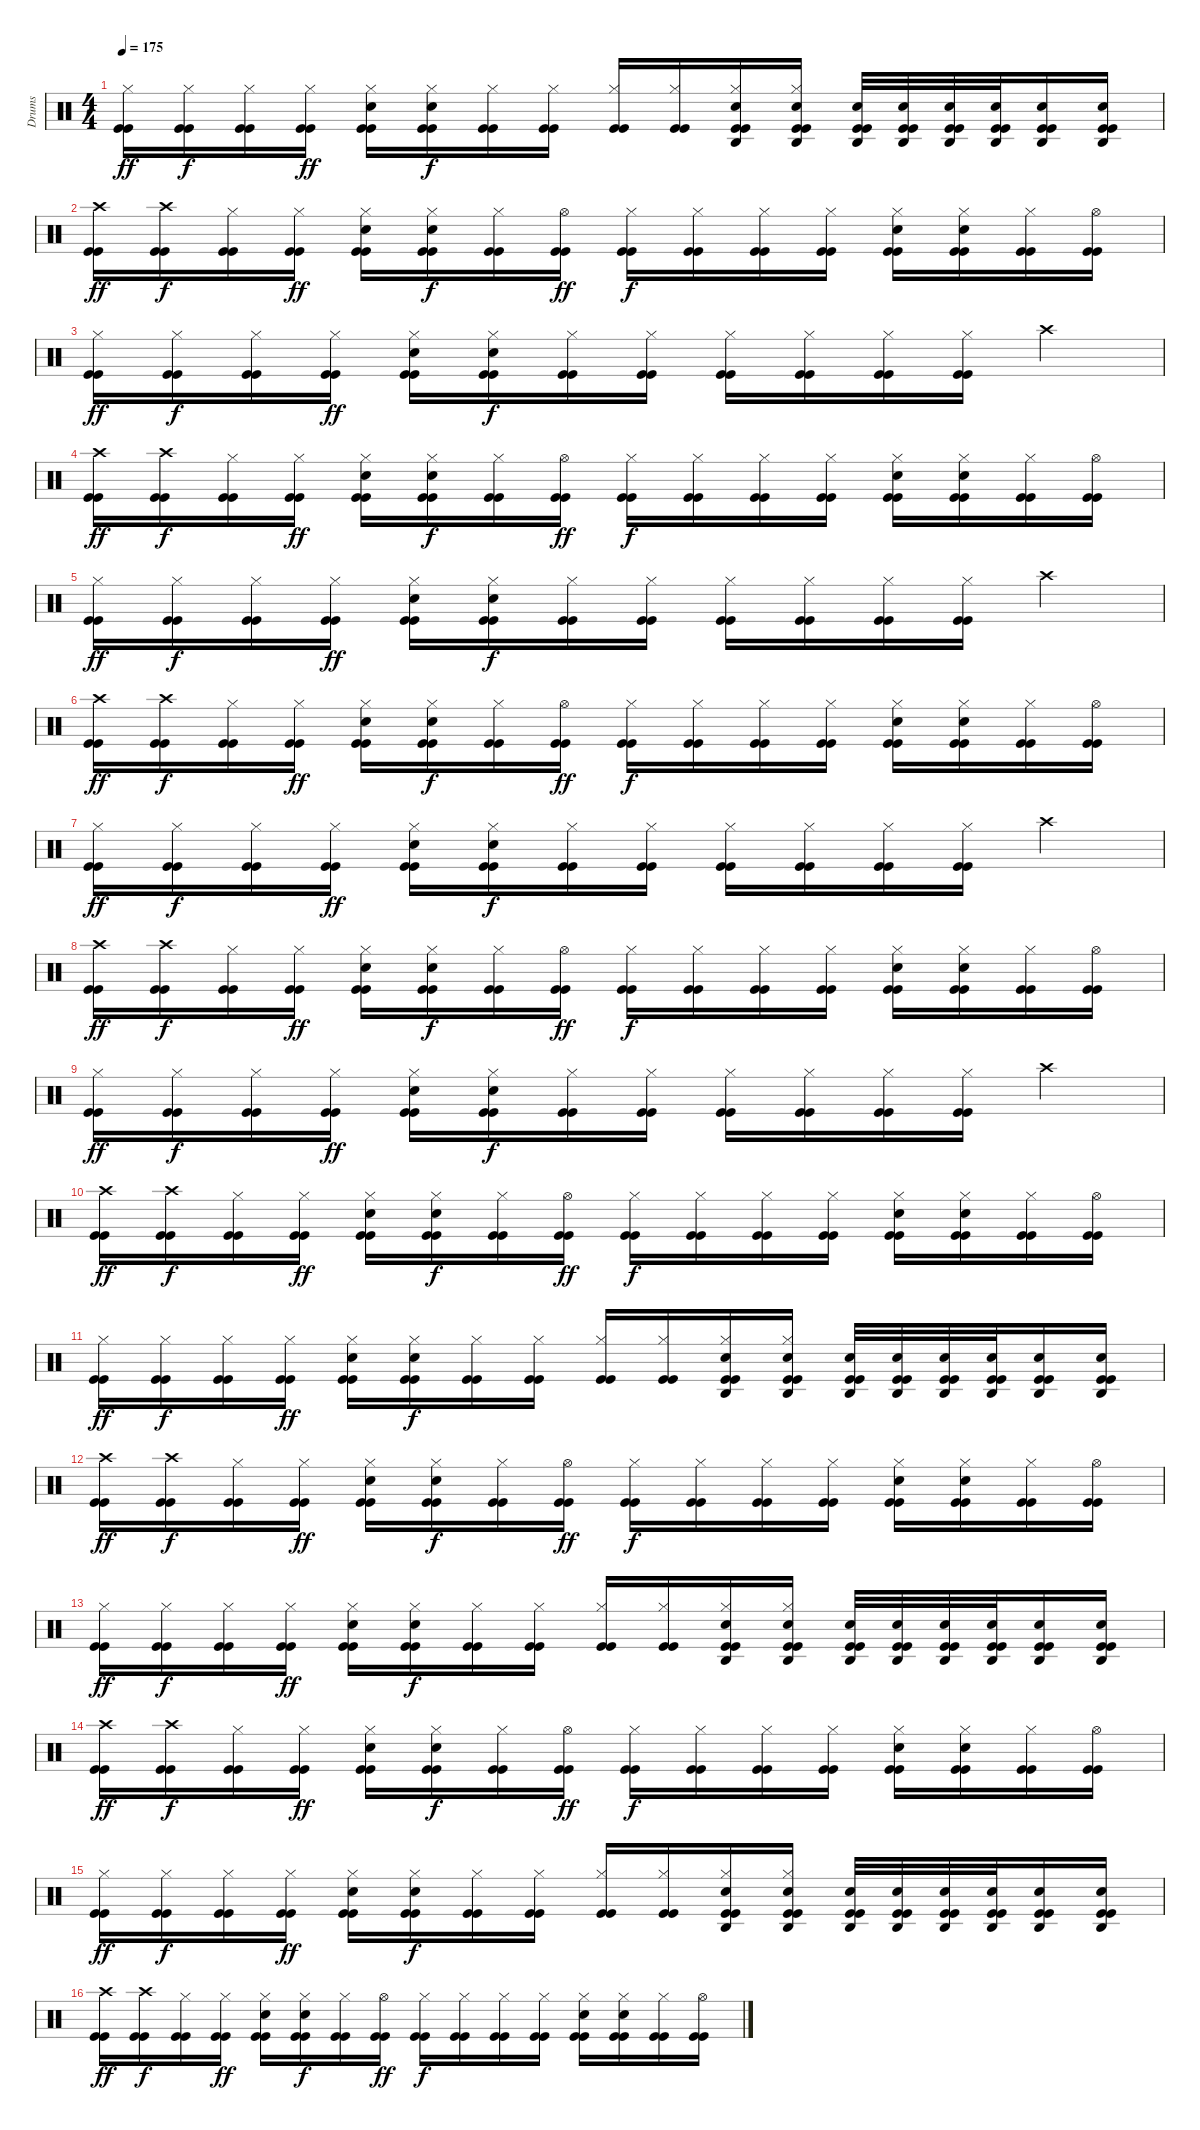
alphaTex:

\track ("Drums" "Drums") {instrument percussion}
\staff {score}
\articulation defaults
\ts (4 4)
\tempo 175
\clef neutral
\ks c
("Hi-Hat (closed)" "Kick (hit)" "Kick (hit)").16{dy ff} ("Hi-Hat (closed)" "Kick (hit)" "Kick (hit)").16{dy f} ("Hi-Hat (closed)" "Kick (hit)" "Kick (hit)").16 ("Hi-Hat (closed)" "Kick (hit)" "Kick (hit)").16{dy ff} ("Electric Snare (hit)" "Hi-Hat (closed)" "Kick (hit)" "Kick (hit)").16 ("Electric Snare (hit)" "Hi-Hat (closed)" "Kick (hit)" "Kick (hit)").16{dy f} ("Hi-Hat (closed)" "Kick (hit)" "Kick (hit)").16 ("Hi-Hat (closed)" "Kick (hit)" "Kick (hit)").16 ("Hi-Hat (closed)" "Kick (hit)" "Kick (hit)").16 ("Hi-Hat (closed)" "Kick (hit)" "Kick (hit)").16 ("Agogo high (hit)" "Electric Snare (hit)" "Hi-Hat (closed)" "Kick (hit)" "Kick (hit)").16 ("Agogo high (hit)" "Electric Snare (hit)" "Hi-Hat (closed)" "Kick (hit)" "Kick (hit)").16 ("Agogo high (hit)" "Electric Snare (hit)" "Kick (hit)" "Kick (hit)").32 ("Agogo high (hit)" "Electric Snare (hit)" "Kick (hit)" "Kick (hit)").32 ("Agogo high (hit)" "Electric Snare (hit)" "Kick (hit)" "Kick (hit)").32 ("Agogo high (hit)" "Electric Snare (hit)" "Kick (hit)" "Kick (hit)").32 ("Agogo high (hit)" "Electric Snare (hit)" "Kick (hit)" "Kick (hit)").16 ("Agogo high (hit)" "Electric Snare (hit)" "Kick (hit)" "Kick (hit)").16 |
("Crash high (hit)" "Kick (hit)" "Kick (hit)").16{dy ff} ("Crash high (hit)" "Kick (hit)" "Kick (hit)").16{dy f} ("Hi-Hat (closed)" "Kick (hit)" "Kick (hit)").16 ("Hi-Hat (closed)" "Kick (hit)" "Kick (hit)").16{dy ff} ("Electric Snare (hit)" "Hi-Hat (closed)" "Kick (hit)" "Kick (hit)").16 ("Electric Snare (hit)" "Hi-Hat (closed)" "Kick (hit)" "Kick (hit)").16{dy f} ("Hi-Hat (closed)" "Kick (hit)" "Kick (hit)").16 ("Hi-Hat (open)" "Kick (hit)" "Kick (hit)").16{dy ff} ("Hi-Hat (closed)" "Kick (hit)" "Kick (hit)").16{dy f} ("Hi-Hat (closed)" "Kick (hit)" "Kick (hit)").16 ("Hi-Hat (closed)" "Kick (hit)" "Kick (hit)").16 ("Hi-Hat (closed)" "Kick (hit)" "Kick (hit)").16 ("Electric Snare (hit)" "Hi-Hat (closed)" "Kick (hit)" "Kick (hit)").16 ("Electric Snare (hit)" "Hi-Hat (closed)" "Kick (hit)" "Kick (hit)").16 ("Hi-Hat (closed)" "Kick (hit)" "Kick (hit)").16 ("Hi-Hat (open)" "Kick (hit)" "Kick (hit)").16 |
("Hi-Hat (closed)" "Kick (hit)" "Kick (hit)").16{dy ff} ("Hi-Hat (closed)" "Kick (hit)" "Kick (hit)").16{dy f} ("Hi-Hat (closed)" "Kick (hit)" "Kick (hit)").16 ("Hi-Hat (closed)" "Kick (hit)" "Kick (hit)").16{dy ff} ("Electric Snare (hit)" "Hi-Hat (closed)" "Kick (hit)" "Kick (hit)").16 ("Electric Snare (hit)" "Hi-Hat (closed)" "Kick (hit)" "Kick (hit)").16{dy f} ("Hi-Hat (closed)" "Kick (hit)" "Kick (hit)").16 ("Hi-Hat (closed)" "Kick (hit)" "Kick (hit)").16 ("Hi-Hat (closed)" "Kick (hit)" "Kick (hit)").16 ("Hi-Hat (closed)" "Kick (hit)" "Kick (hit)").16 ("Hi-Hat (closed)" "Kick (hit)" "Kick (hit)").16 ("Hi-Hat (closed)" "Kick (hit)" "Kick (hit)").16 "Crash high (hit)".4 |
("Crash high (hit)" "Kick (hit)" "Kick (hit)").16{dy ff} ("Crash high (hit)" "Kick (hit)" "Kick (hit)").16{dy f} ("Hi-Hat (closed)" "Kick (hit)" "Kick (hit)").16 ("Hi-Hat (closed)" "Kick (hit)" "Kick (hit)").16{dy ff} ("Electric Snare (hit)" "Hi-Hat (closed)" "Kick (hit)" "Kick (hit)").16 ("Electric Snare (hit)" "Hi-Hat (closed)" "Kick (hit)" "Kick (hit)").16{dy f} ("Hi-Hat (closed)" "Kick (hit)" "Kick (hit)").16 ("Hi-Hat (open)" "Kick (hit)" "Kick (hit)").16{dy ff} ("Hi-Hat (closed)" "Kick (hit)" "Kick (hit)").16{dy f} ("Hi-Hat (closed)" "Kick (hit)" "Kick (hit)").16 ("Hi-Hat (closed)" "Kick (hit)" "Kick (hit)").16 ("Hi-Hat (closed)" "Kick (hit)" "Kick (hit)").16 ("Electric Snare (hit)" "Hi-Hat (closed)" "Kick (hit)" "Kick (hit)").16 ("Electric Snare (hit)" "Hi-Hat (closed)" "Kick (hit)" "Kick (hit)").16 ("Hi-Hat (closed)" "Kick (hit)" "Kick (hit)").16 ("Hi-Hat (open)" "Kick (hit)" "Kick (hit)").16 |
("Hi-Hat (closed)" "Kick (hit)" "Kick (hit)").16{dy ff} ("Hi-Hat (closed)" "Kick (hit)" "Kick (hit)").16{dy f} ("Hi-Hat (closed)" "Kick (hit)" "Kick (hit)").16 ("Hi-Hat (closed)" "Kick (hit)" "Kick (hit)").16{dy ff} ("Electric Snare (hit)" "Hi-Hat (closed)" "Kick (hit)" "Kick (hit)").16 ("Electric Snare (hit)" "Hi-Hat (closed)" "Kick (hit)" "Kick (hit)").16{dy f} ("Hi-Hat (closed)" "Kick (hit)" "Kick (hit)").16 ("Hi-Hat (closed)" "Kick (hit)" "Kick (hit)").16 ("Hi-Hat (closed)" "Kick (hit)" "Kick (hit)").16 ("Hi-Hat (closed)" "Kick (hit)" "Kick (hit)").16 ("Hi-Hat (closed)" "Kick (hit)" "Kick (hit)").16 ("Hi-Hat (closed)" "Kick (hit)" "Kick (hit)").16 "Crash high (hit)".4 |
("Crash high (hit)" "Kick (hit)" "Kick (hit)").16{dy ff} ("Crash high (hit)" "Kick (hit)" "Kick (hit)").16{dy f} ("Hi-Hat (closed)" "Kick (hit)" "Kick (hit)").16 ("Hi-Hat (closed)" "Kick (hit)" "Kick (hit)").16{dy ff} ("Electric Snare (hit)" "Hi-Hat (closed)" "Kick (hit)" "Kick (hit)").16 ("Electric Snare (hit)" "Hi-Hat (closed)" "Kick (hit)" "Kick (hit)").16{dy f} ("Hi-Hat (closed)" "Kick (hit)" "Kick (hit)").16 ("Hi-Hat (open)" "Kick (hit)" "Kick (hit)").16{dy ff} ("Hi-Hat (closed)" "Kick (hit)" "Kick (hit)").16{dy f} ("Hi-Hat (closed)" "Kick (hit)" "Kick (hit)").16 ("Hi-Hat (closed)" "Kick (hit)" "Kick (hit)").16 ("Hi-Hat (closed)" "Kick (hit)" "Kick (hit)").16 ("Electric Snare (hit)" "Hi-Hat (closed)" "Kick (hit)" "Kick (hit)").16 ("Electric Snare (hit)" "Hi-Hat (closed)" "Kick (hit)" "Kick (hit)").16 ("Hi-Hat (closed)" "Kick (hit)" "Kick (hit)").16 ("Hi-Hat (open)" "Kick (hit)" "Kick (hit)").16 |
("Hi-Hat (closed)" "Kick (hit)" "Kick (hit)").16{dy ff} ("Hi-Hat (closed)" "Kick (hit)" "Kick (hit)").16{dy f} ("Hi-Hat (closed)" "Kick (hit)" "Kick (hit)").16 ("Hi-Hat (closed)" "Kick (hit)" "Kick (hit)").16{dy ff} ("Electric Snare (hit)" "Hi-Hat (closed)" "Kick (hit)" "Kick (hit)").16 ("Electric Snare (hit)" "Hi-Hat (closed)" "Kick (hit)" "Kick (hit)").16{dy f} ("Hi-Hat (closed)" "Kick (hit)" "Kick (hit)").16 ("Hi-Hat (closed)" "Kick (hit)" "Kick (hit)").16 ("Hi-Hat (closed)" "Kick (hit)" "Kick (hit)").16 ("Hi-Hat (closed)" "Kick (hit)" "Kick (hit)").16 ("Hi-Hat (closed)" "Kick (hit)" "Kick (hit)").16 ("Hi-Hat (closed)" "Kick (hit)" "Kick (hit)").16 "Crash high (hit)".4 |
("Crash high (hit)" "Kick (hit)" "Kick (hit)").16{dy ff} ("Crash high (hit)" "Kick (hit)" "Kick (hit)").16{dy f} ("Hi-Hat (closed)" "Kick (hit)" "Kick (hit)").16 ("Hi-Hat (closed)" "Kick (hit)" "Kick (hit)").16{dy ff} ("Electric Snare (hit)" "Hi-Hat (closed)" "Kick (hit)" "Kick (hit)").16 ("Electric Snare (hit)" "Hi-Hat (closed)" "Kick (hit)" "Kick (hit)").16{dy f} ("Hi-Hat (closed)" "Kick (hit)" "Kick (hit)").16 ("Hi-Hat (open)" "Kick (hit)" "Kick (hit)").16{dy ff} ("Hi-Hat (closed)" "Kick (hit)" "Kick (hit)").16{dy f} ("Hi-Hat (closed)" "Kick (hit)" "Kick (hit)").16 ("Hi-Hat (closed)" "Kick (hit)" "Kick (hit)").16 ("Hi-Hat (closed)" "Kick (hit)" "Kick (hit)").16 ("Electric Snare (hit)" "Hi-Hat (closed)" "Kick (hit)" "Kick (hit)").16 ("Electric Snare (hit)" "Hi-Hat (closed)" "Kick (hit)" "Kick (hit)").16 ("Hi-Hat (closed)" "Kick (hit)" "Kick (hit)").16 ("Hi-Hat (open)" "Kick (hit)" "Kick (hit)").16 |
("Hi-Hat (closed)" "Kick (hit)" "Kick (hit)").16{dy ff} ("Hi-Hat (closed)" "Kick (hit)" "Kick (hit)").16{dy f} ("Hi-Hat (closed)" "Kick (hit)" "Kick (hit)").16 ("Hi-Hat (closed)" "Kick (hit)" "Kick (hit)").16{dy ff} ("Electric Snare (hit)" "Hi-Hat (closed)" "Kick (hit)" "Kick (hit)").16 ("Electric Snare (hit)" "Hi-Hat (closed)" "Kick (hit)" "Kick (hit)").16{dy f} ("Hi-Hat (closed)" "Kick (hit)" "Kick (hit)").16 ("Hi-Hat (closed)" "Kick (hit)" "Kick (hit)").16 ("Hi-Hat (closed)" "Kick (hit)" "Kick (hit)").16 ("Hi-Hat (closed)" "Kick (hit)" "Kick (hit)").16 ("Hi-Hat (closed)" "Kick (hit)" "Kick (hit)").16 ("Hi-Hat (closed)" "Kick (hit)" "Kick (hit)").16 "Crash high (hit)".4 |
("Crash high (hit)" "Kick (hit)" "Kick (hit)").16{dy ff} ("Crash high (hit)" "Kick (hit)" "Kick (hit)").16{dy f} ("Hi-Hat (closed)" "Kick (hit)" "Kick (hit)").16 ("Hi-Hat (closed)" "Kick (hit)" "Kick (hit)").16{dy ff} ("Electric Snare (hit)" "Hi-Hat (closed)" "Kick (hit)" "Kick (hit)").16 ("Electric Snare (hit)" "Hi-Hat (closed)" "Kick (hit)" "Kick (hit)").16{dy f} ("Hi-Hat (closed)" "Kick (hit)" "Kick (hit)").16 ("Hi-Hat (open)" "Kick (hit)" "Kick (hit)").16{dy ff} ("Hi-Hat (closed)" "Kick (hit)" "Kick (hit)").16{dy f} ("Hi-Hat (closed)" "Kick (hit)" "Kick (hit)").16 ("Hi-Hat (closed)" "Kick (hit)" "Kick (hit)").16 ("Hi-Hat (closed)" "Kick (hit)" "Kick (hit)").16 ("Electric Snare (hit)" "Hi-Hat (closed)" "Kick (hit)" "Kick (hit)").16 ("Electric Snare (hit)" "Hi-Hat (closed)" "Kick (hit)" "Kick (hit)").16 ("Hi-Hat (closed)" "Kick (hit)" "Kick (hit)").16 ("Hi-Hat (open)" "Kick (hit)" "Kick (hit)").16 |
("Hi-Hat (closed)" "Kick (hit)" "Kick (hit)").16{dy ff} ("Hi-Hat (closed)" "Kick (hit)" "Kick (hit)").16{dy f} ("Hi-Hat (closed)" "Kick (hit)" "Kick (hit)").16 ("Hi-Hat (closed)" "Kick (hit)" "Kick (hit)").16{dy ff} ("Electric Snare (hit)" "Hi-Hat (closed)" "Kick (hit)" "Kick (hit)").16 ("Electric Snare (hit)" "Hi-Hat (closed)" "Kick (hit)" "Kick (hit)").16{dy f} ("Hi-Hat (closed)" "Kick (hit)" "Kick (hit)").16 ("Hi-Hat (closed)" "Kick (hit)" "Kick (hit)").16 ("Hi-Hat (closed)" "Kick (hit)" "Kick (hit)").16 ("Hi-Hat (closed)" "Kick (hit)" "Kick (hit)").16 ("Agogo high (hit)" "Electric Snare (hit)" "Hi-Hat (closed)" "Kick (hit)" "Kick (hit)").16 ("Agogo high (hit)" "Electric Snare (hit)" "Hi-Hat (closed)" "Kick (hit)" "Kick (hit)").16 ("Agogo high (hit)" "Electric Snare (hit)" "Kick (hit)" "Kick (hit)").32 ("Agogo high (hit)" "Electric Snare (hit)" "Kick (hit)" "Kick (hit)").32 ("Agogo high (hit)" "Electric Snare (hit)" "Kick (hit)" "Kick (hit)").32 ("Agogo high (hit)" "Electric Snare (hit)" "Kick (hit)" "Kick (hit)").32 ("Agogo high (hit)" "Electric Snare (hit)" "Kick (hit)" "Kick (hit)").16 ("Agogo high (hit)" "Electric Snare (hit)" "Kick (hit)" "Kick (hit)").16 |
("Crash high (hit)" "Kick (hit)" "Kick (hit)").16{dy ff} ("Crash high (hit)" "Kick (hit)" "Kick (hit)").16{dy f} ("Hi-Hat (closed)" "Kick (hit)" "Kick (hit)").16 ("Hi-Hat (closed)" "Kick (hit)" "Kick (hit)").16{dy ff} ("Electric Snare (hit)" "Hi-Hat (closed)" "Kick (hit)" "Kick (hit)").16 ("Electric Snare (hit)" "Hi-Hat (closed)" "Kick (hit)" "Kick (hit)").16{dy f} ("Hi-Hat (closed)" "Kick (hit)" "Kick (hit)").16 ("Hi-Hat (open)" "Kick (hit)" "Kick (hit)").16{dy ff} ("Hi-Hat (closed)" "Kick (hit)" "Kick (hit)").16{dy f} ("Hi-Hat (closed)" "Kick (hit)" "Kick (hit)").16 ("Hi-Hat (closed)" "Kick (hit)" "Kick (hit)").16 ("Hi-Hat (closed)" "Kick (hit)" "Kick (hit)").16 ("Electric Snare (hit)" "Hi-Hat (closed)" "Kick (hit)" "Kick (hit)").16 ("Electric Snare (hit)" "Hi-Hat (closed)" "Kick (hit)" "Kick (hit)").16 ("Hi-Hat (closed)" "Kick (hit)" "Kick (hit)").16 ("Hi-Hat (open)" "Kick (hit)" "Kick (hit)").16 |
("Hi-Hat (closed)" "Kick (hit)" "Kick (hit)").16{dy ff} ("Hi-Hat (closed)" "Kick (hit)" "Kick (hit)").16{dy f} ("Hi-Hat (closed)" "Kick (hit)" "Kick (hit)").16 ("Hi-Hat (closed)" "Kick (hit)" "Kick (hit)").16{dy ff} ("Electric Snare (hit)" "Hi-Hat (closed)" "Kick (hit)" "Kick (hit)").16 ("Electric Snare (hit)" "Hi-Hat (closed)" "Kick (hit)" "Kick (hit)").16{dy f} ("Hi-Hat (closed)" "Kick (hit)" "Kick (hit)").16 ("Hi-Hat (closed)" "Kick (hit)" "Kick (hit)").16 ("Hi-Hat (closed)" "Kick (hit)" "Kick (hit)").16 ("Hi-Hat (closed)" "Kick (hit)" "Kick (hit)").16 ("Agogo high (hit)" "Electric Snare (hit)" "Hi-Hat (closed)" "Kick (hit)" "Kick (hit)").16 ("Agogo high (hit)" "Electric Snare (hit)" "Hi-Hat (closed)" "Kick (hit)" "Kick (hit)").16 ("Agogo high (hit)" "Electric Snare (hit)" "Kick (hit)" "Kick (hit)").32 ("Agogo high (hit)" "Electric Snare (hit)" "Kick (hit)" "Kick (hit)").32 ("Agogo high (hit)" "Electric Snare (hit)" "Kick (hit)" "Kick (hit)").32 ("Agogo high (hit)" "Electric Snare (hit)" "Kick (hit)" "Kick (hit)").32 ("Agogo high (hit)" "Electric Snare (hit)" "Kick (hit)" "Kick (hit)").16 ("Agogo high (hit)" "Electric Snare (hit)" "Kick (hit)" "Kick (hit)").16 |
("Crash high (hit)" "Kick (hit)" "Kick (hit)").16{dy ff} ("Crash high (hit)" "Kick (hit)" "Kick (hit)").16{dy f} ("Hi-Hat (closed)" "Kick (hit)" "Kick (hit)").16 ("Hi-Hat (closed)" "Kick (hit)" "Kick (hit)").16{dy ff} ("Electric Snare (hit)" "Hi-Hat (closed)" "Kick (hit)" "Kick (hit)").16 ("Electric Snare (hit)" "Hi-Hat (closed)" "Kick (hit)" "Kick (hit)").16{dy f} ("Hi-Hat (closed)" "Kick (hit)" "Kick (hit)").16 ("Hi-Hat (open)" "Kick (hit)" "Kick (hit)").16{dy ff} ("Hi-Hat (closed)" "Kick (hit)" "Kick (hit)").16{dy f} ("Hi-Hat (closed)" "Kick (hit)" "Kick (hit)").16 ("Hi-Hat (closed)" "Kick (hit)" "Kick (hit)").16 ("Hi-Hat (closed)" "Kick (hit)" "Kick (hit)").16 ("Electric Snare (hit)" "Hi-Hat (closed)" "Kick (hit)" "Kick (hit)").16 ("Electric Snare (hit)" "Hi-Hat (closed)" "Kick (hit)" "Kick (hit)").16 ("Hi-Hat (closed)" "Kick (hit)" "Kick (hit)").16 ("Hi-Hat (open)" "Kick (hit)" "Kick (hit)").16 |
("Hi-Hat (closed)" "Kick (hit)" "Kick (hit)").16{dy ff} ("Hi-Hat (closed)" "Kick (hit)" "Kick (hit)").16{dy f} ("Hi-Hat (closed)" "Kick (hit)" "Kick (hit)").16 ("Hi-Hat (closed)" "Kick (hit)" "Kick (hit)").16{dy ff} ("Electric Snare (hit)" "Hi-Hat (closed)" "Kick (hit)" "Kick (hit)").16 ("Electric Snare (hit)" "Hi-Hat (closed)" "Kick (hit)" "Kick (hit)").16{dy f} ("Hi-Hat (closed)" "Kick (hit)" "Kick (hit)").16 ("Hi-Hat (closed)" "Kick (hit)" "Kick (hit)").16 ("Hi-Hat (closed)" "Kick (hit)" "Kick (hit)").16 ("Hi-Hat (closed)" "Kick (hit)" "Kick (hit)").16 ("Agogo high (hit)" "Electric Snare (hit)" "Hi-Hat (closed)" "Kick (hit)" "Kick (hit)").16 ("Agogo high (hit)" "Electric Snare (hit)" "Hi-Hat (closed)" "Kick (hit)" "Kick (hit)").16 ("Agogo high (hit)" "Electric Snare (hit)" "Kick (hit)" "Kick (hit)").32 ("Agogo high (hit)" "Electric Snare (hit)" "Kick (hit)" "Kick (hit)").32 ("Agogo high (hit)" "Electric Snare (hit)" "Kick (hit)" "Kick (hit)").32 ("Agogo high (hit)" "Electric Snare (hit)" "Kick (hit)" "Kick (hit)").32 ("Agogo high (hit)" "Electric Snare (hit)" "Kick (hit)" "Kick (hit)").16 ("Agogo high (hit)" "Electric Snare (hit)" "Kick (hit)" "Kick (hit)").16 |
("Crash high (hit)" "Kick (hit)" "Kick (hit)").16{dy ff} ("Crash high (hit)" "Kick (hit)" "Kick (hit)").16{dy f} ("Hi-Hat (closed)" "Kick (hit)" "Kick (hit)").16 ("Hi-Hat (closed)" "Kick (hit)" "Kick (hit)").16{dy ff} ("Electric Snare (hit)" "Hi-Hat (closed)" "Kick (hit)" "Kick (hit)").16 ("Electric Snare (hit)" "Hi-Hat (closed)" "Kick (hit)" "Kick (hit)").16{dy f} ("Hi-Hat (closed)" "Kick (hit)" "Kick (hit)").16 ("Hi-Hat (open)" "Kick (hit)" "Kick (hit)").16{dy ff} ("Hi-Hat (closed)" "Kick (hit)" "Kick (hit)").16{dy f} ("Hi-Hat (closed)" "Kick (hit)" "Kick (hit)").16 ("Hi-Hat (closed)" "Kick (hit)" "Kick (hit)").16 ("Hi-Hat (closed)" "Kick (hit)" "Kick (hit)").16 ("Electric Snare (hit)" "Hi-Hat (closed)" "Kick (hit)" "Kick (hit)").16 ("Electric Snare (hit)" "Hi-Hat (closed)" "Kick (hit)" "Kick (hit)").16 ("Hi-Hat (closed)" "Kick (hit)" "Kick (hit)").16 ("Hi-Hat (open)" "Kick (hit)" "Kick (hit)").16
